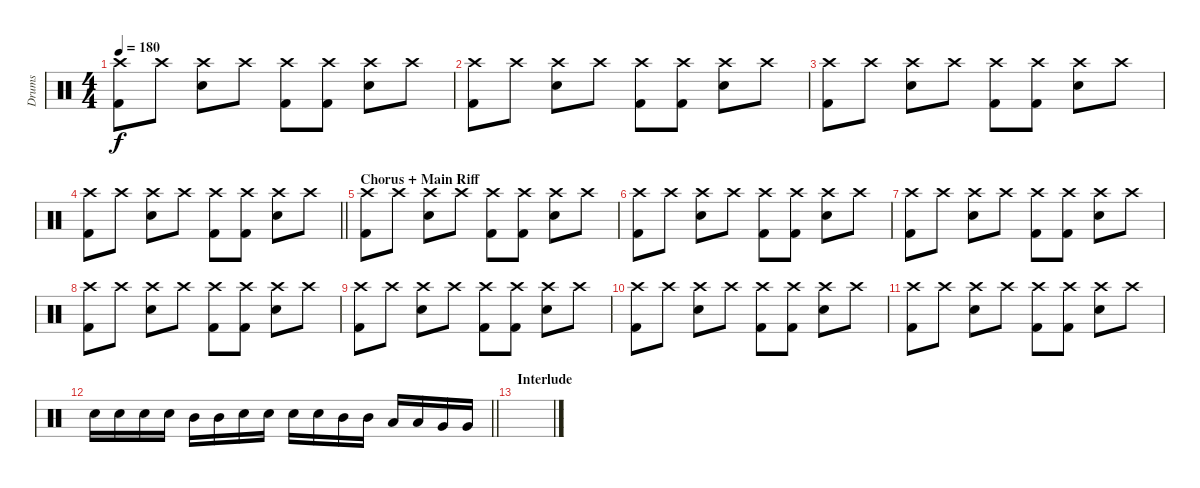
\track ("Drums" "Drums") {instrument percussion}
\staff {score}
\articulation defaults
\ts (4 4)
\tempo 180
\clef neutral
\ks c
("Crash high (hit)" "Kick (hit) 2").8{dy f} "Crash high (hit)".8 ("Crash high (hit)" "Snare (hit) 2").8 "Crash high (hit)".8 ("Crash high (hit)" "Kick (hit) 2").8 ("Crash high (hit)" "Kick (hit) 2").8 ("Crash high (hit)" "Snare (hit) 2").8 "Crash high (hit)".8 |
("Crash high (hit)" "Kick (hit) 2").8 "Crash high (hit)".8 ("Crash high (hit)" "Snare (hit) 2").8 "Crash high (hit)".8 ("Crash high (hit)" "Kick (hit) 2").8 ("Crash high (hit)" "Kick (hit) 2").8 ("Crash high (hit)" "Snare (hit) 2").8 "Crash high (hit)".8 |
("Crash high (hit)" "Kick (hit) 2").8 "Crash high (hit)".8 ("Crash high (hit)" "Snare (hit) 2").8 "Crash high (hit)".8 ("Crash high (hit)" "Kick (hit) 2").8 ("Crash high (hit)" "Kick (hit) 2").8 ("Crash high (hit)" "Snare (hit) 2").8 "Crash high (hit)".8 |
\barLineRight lightlight
("Crash high (hit)" "Kick (hit) 2").8 "Crash high (hit)".8 ("Crash high (hit)" "Snare (hit) 2").8 "Crash high (hit)".8 ("Crash high (hit)" "Kick (hit) 2").8 ("Crash high (hit)" "Kick (hit) 2").8 ("Crash high (hit)" "Snare (hit) 2").8 "Crash high (hit)".8 |
\section ("" "Chorus + Main Riff")
("Crash high (hit)" "Kick (hit) 2").8 "Crash high (hit)".8 ("Crash high (hit)" "Snare (hit) 2").8 "Crash high (hit)".8 ("Crash high (hit)" "Kick (hit) 2").8 ("Crash high (hit)" "Kick (hit) 2").8 ("Crash high (hit)" "Snare (hit) 2").8 "Crash high (hit)".8 |
("Crash high (hit)" "Kick (hit) 2").8 "Crash high (hit)".8 ("Crash high (hit)" "Snare (hit) 2").8 "Crash high (hit)".8 ("Crash high (hit)" "Kick (hit) 2").8 ("Crash high (hit)" "Kick (hit) 2").8 ("Crash high (hit)" "Snare (hit) 2").8 "Crash high (hit)".8 |
("Crash high (hit)" "Kick (hit) 2").8 "Crash high (hit)".8 ("Crash high (hit)" "Snare (hit) 2").8 "Crash high (hit)".8 ("Crash high (hit)" "Kick (hit) 2").8 ("Crash high (hit)" "Kick (hit) 2").8 ("Crash high (hit)" "Snare (hit) 2").8 "Crash high (hit)".8 |
("Crash high (hit)" "Kick (hit) 2").8 "Crash high (hit)".8 ("Crash high (hit)" "Snare (hit) 2").8 "Crash high (hit)".8 ("Crash high (hit)" "Kick (hit) 2").8 ("Crash high (hit)" "Kick (hit) 2").8 ("Crash high (hit)" "Snare (hit) 2").8 "Crash high (hit)".8 |
("Crash high (hit)" "Kick (hit) 2").8 "Crash high (hit)".8 ("Crash high (hit)" "Snare (hit) 2").8 "Crash high (hit)".8 ("Crash high (hit)" "Kick (hit) 2").8 ("Crash high (hit)" "Kick (hit) 2").8 ("Crash high (hit)" "Snare (hit) 2").8 "Crash high (hit)".8 |
("Crash high (hit)" "Kick (hit) 2").8 "Crash high (hit)".8 ("Crash high (hit)" "Snare (hit) 2").8 "Crash high (hit)".8 ("Crash high (hit)" "Kick (hit) 2").8 ("Crash high (hit)" "Kick (hit) 2").8 ("Crash high (hit)" "Snare (hit) 2").8 "Crash high (hit)".8 |
("Crash high (hit)" "Kick (hit) 2").8 "Crash high (hit)".8 ("Crash high (hit)" "Snare (hit) 2").8 "Crash high (hit)".8 ("Crash high (hit)" "Kick (hit) 2").8 ("Crash high (hit)" "Kick (hit) 2").8 ("Crash high (hit)" "Snare (hit) 2").8 "Crash high (hit)".8 |
\barLineRight lightlight "Snare (hit) 2".16 "Snare (hit) 2".16 "Snare (hit) 2".16 "Snare (hit) 2".16 "Mid Tom (hit)".16 "Mid Tom (hit)".16 "Snare (hit) 2".16 "Snare (hit) 2".16 "Snare (hit) 2".16 "Snare (hit) 2".16 "Mid Tom (hit)".16 "Mid Tom (hit)".16 "Low Tom (hit)".16 "Low Tom (hit)".16 "Very Low Tom (hit)".16 "Very Low Tom (hit)".16
|
\section ("" "Interlude")
